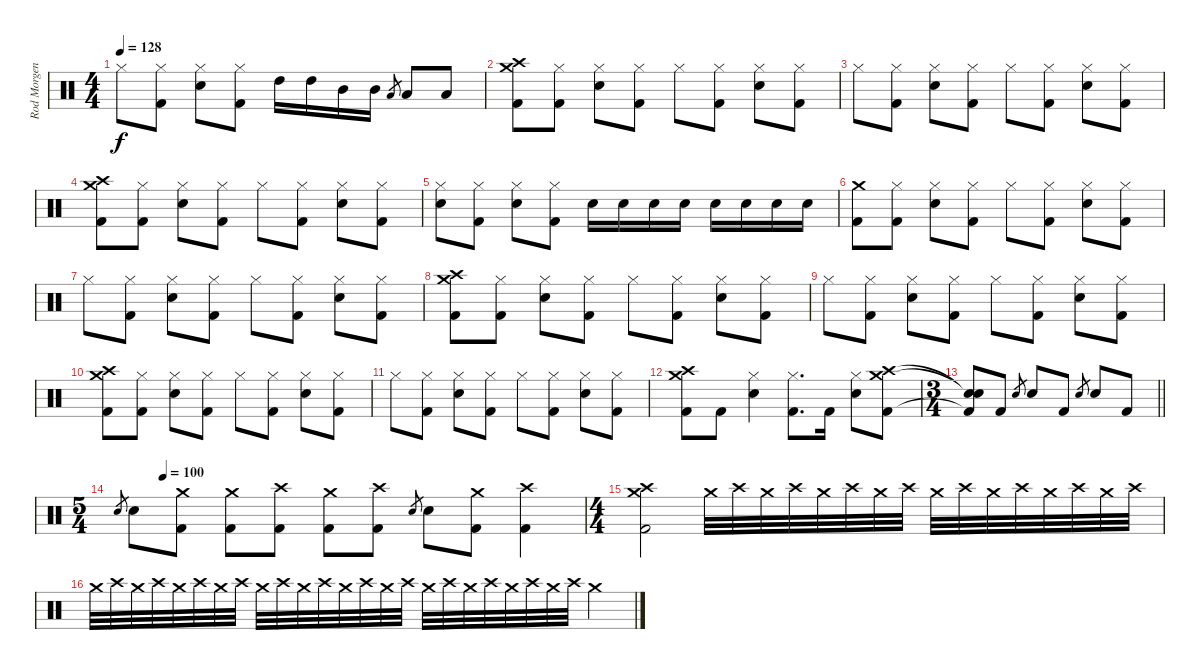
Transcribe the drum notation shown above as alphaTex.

\track ("Rod Morgenstein" "Rod Morgen") {instrument percussion}
\staff {score}
\articulation defaults
\ts (4 4)
\tempo 128
\clef neutral
\ks c "Hi-Hat (closed)".8{dy f}
("Hi-Hat (closed)" "Kick (hit) 2").8 ("Hi-Hat (closed)" "Snare (hit) 2").8 ("Hi-Hat (closed)" "Kick (hit) 2").8 "High Tom (hit)".16 "High Tom (hit)".16 "Mid Tom (hit)".16 "Mid Tom (hit)".16 "Low Tom (hit)".8{gr} "Low Tom (hit)".8 "Low Floor Tom (hit)".8 |
("Crash medium (hit)" "Crash high (hit)" "Kick (hit) 2").8 ("Hi-Hat (closed)" "Kick (hit) 2").8 ("Hi-Hat (closed)" "Snare (hit) 2").8 ("Hi-Hat (closed)" "Kick (hit) 2").8 "Hi-Hat (closed)".8 ("Hi-Hat (closed)" "Kick (hit) 2").8 ("Hi-Hat (closed)" "Snare (hit) 2").8 ("Hi-Hat (closed)" "Kick (hit) 2").8 |
"Hi-Hat (closed)".8 ("Hi-Hat (closed)" "Kick (hit) 2").8 ("Hi-Hat (closed)" "Snare (hit) 2").8 ("Hi-Hat (closed)" "Kick (hit) 2").8 "Hi-Hat (closed)".8 ("Hi-Hat (closed)" "Kick (hit) 2").8 ("Hi-Hat (closed)" "Snare (hit) 2").8 ("Hi-Hat (closed)" "Kick (hit) 2").8 |
("Crash medium (hit)" "Crash high (hit)" "Kick (hit) 2").8 ("Hi-Hat (closed)" "Kick (hit) 2").8 ("Hi-Hat (closed)" "Snare (hit) 2").8 ("Hi-Hat (closed)" "Kick (hit) 2").8 "Hi-Hat (closed)".8 ("Hi-Hat (closed)" "Kick (hit) 2").8 ("Hi-Hat (closed)" "Snare (hit) 2").8 ("Hi-Hat (closed)" "Kick (hit) 2").8 |
("Hi-Hat (closed)" "Snare (hit) 2").8 ("Hi-Hat (closed)" "Kick (hit) 2").8 ("Hi-Hat (closed)" "Snare (hit) 2").8 ("Hi-Hat (closed)" "Kick (hit) 2").8 "Snare (hit) 2".16 "Snare (hit) 2".16 "Snare (hit) 2".16 "Snare (hit) 2".16 "Snare (hit) 2".16 "Snare (hit) 2".16 "Snare (hit) 2".16 "Snare (hit) 2".16 |
("Crash medium (hit)" "Kick (hit) 2").8 ("Hi-Hat (closed)" "Kick (hit) 2").8 ("Hi-Hat (closed)" "Snare (hit) 2").8 ("Hi-Hat (closed)" "Kick (hit) 2").8 "Hi-Hat (closed)".8 ("Hi-Hat (closed)" "Kick (hit) 2").8 ("Hi-Hat (closed)" "Snare (hit) 2").8 ("Hi-Hat (closed)" "Kick (hit) 2").8 |
"Hi-Hat (closed)".8 ("Hi-Hat (closed)" "Kick (hit) 2").8 ("Hi-Hat (closed)" "Snare (hit) 2").8 ("Hi-Hat (closed)" "Kick (hit) 2").8 "Hi-Hat (closed)".8 ("Hi-Hat (closed)" "Kick (hit) 2").8 ("Hi-Hat (closed)" "Snare (hit) 2").8 ("Hi-Hat (closed)" "Kick (hit) 2").8 |
("Crash medium (hit)" "Crash high (hit)" "Kick (hit) 2").8 ("Hi-Hat (closed)" "Kick (hit) 2").8 ("Hi-Hat (closed)" "Snare (hit) 2").8 ("Hi-Hat (closed)" "Kick (hit) 2").8 "Hi-Hat (closed)".8 ("Hi-Hat (closed)" "Kick (hit) 2").8 ("Hi-Hat (closed)" "Snare (hit) 2").8 ("Hi-Hat (closed)" "Kick (hit) 2").8 |
"Hi-Hat (closed)".8 ("Hi-Hat (closed)" "Kick (hit) 2").8 ("Hi-Hat (closed)" "Snare (hit) 2").8 ("Hi-Hat (closed)" "Kick (hit) 2").8 "Hi-Hat (closed)".8 ("Hi-Hat (closed)" "Kick (hit) 2").8 ("Hi-Hat (closed)" "Snare (hit) 2").8 ("Hi-Hat (closed)" "Kick (hit) 2").8 |
("Crash medium (hit)" "Crash high (hit)" "Kick (hit) 2").8 ("Hi-Hat (closed)" "Kick (hit) 2").8 ("Hi-Hat (closed)" "Snare (hit) 2").8 ("Hi-Hat (closed)" "Kick (hit) 2").8 "Hi-Hat (closed)".8 ("Hi-Hat (closed)" "Kick (hit) 2").8 ("Hi-Hat (closed)" "Snare (hit) 2").8 ("Hi-Hat (closed)" "Kick (hit) 2").8 |
"Hi-Hat (closed)".8 ("Hi-Hat (closed)" "Kick (hit) 2").8 ("Hi-Hat (closed)" "Snare (hit) 2").8 ("Hi-Hat (closed)" "Kick (hit) 2").8 "Hi-Hat (closed)".8 ("Hi-Hat (closed)" "Kick (hit) 2").8 ("Hi-Hat (closed)" "Snare (hit) 2").8 ("Hi-Hat (closed)" "Kick (hit) 2").8 |
("Crash medium (hit)" "Crash high (hit)" "Kick (hit) 2").8 "Kick (hit) 2".8 ("Hi-Hat (closed)" "Snare (hit) 2").4 ("Hi-Hat (closed)" "Kick (hit) 2").8{d} "Kick (hit) 2".16 ("Hi-Hat (closed)" "Snare (hit) 2").8 ("Crash medium (hit)" "Crash high (hit)" "Kick (hit) 2").8 |
\ts (3 4)
\barLineRight lightlight
("Snare (hit)"{t} "Snare (hit)"{t} "Kick (hit) 2"{t}).8 "Kick (hit) 2".8 "Snare (hit) 2".8{gr} "Snare (hit) 2".8 "Kick (hit) 2".8 "Snare (hit) 2".8{gr} "Snare (hit) 2".8 "Kick (hit) 2".8 |
\ts (5 4)
\tempo (100 0.1)
"Snare (hit) 2".8{gr} "Snare (hit) 2".8 ("Crash medium (hit)" "Kick (hit) 2").8 ("Crash medium (hit)" "Kick (hit) 2").8 ("Crash high (hit)" "Kick (hit) 2").8 ("Crash medium (hit)" "Kick (hit) 2").8 ("Crash high (hit)" "Kick (hit) 2").8 "Snare (hit) 2".8{gr} "Snare (hit) 2".8 ("Crash medium (hit)" "Kick (hit) 2").8 ("Crash high (hit)" "Kick (hit) 2").4 |
\ts (4 4)
("Crash medium (hit)" "Crash high (hit)" "Kick (hit) 2").2 "Crash medium (hit)".32 "Crash high (hit)".32 "Crash medium (hit)".32 "Crash high (hit)".32 "Crash medium (hit)".32 "Crash high (hit)".32 "Crash medium (hit)".32 "Crash high (hit)".32 "Crash medium (hit)".32 "Crash high (hit)".32 "Crash medium (hit)".32 "Crash high (hit)".32 "Crash medium (hit)".32 "Crash high (hit)".32 "Crash medium (hit)".32 "Crash high (hit)".32 |
"Crash medium (hit)".32 "Crash high (hit)".32 "Crash medium (hit)".32 "Crash high (hit)".32 "Crash medium (hit)".32 "Crash high (hit)".32 "Crash medium (hit)".32 "Crash high (hit)".32 "Crash medium (hit)".32 "Crash high (hit)".32 "Crash medium (hit)".32 "Crash high (hit)".32 "Crash medium (hit)".32 "Crash high (hit)".32 "Crash medium (hit)".32 "Crash high (hit)".32 "Crash medium (hit)".32 "Crash high (hit)".32 "Crash medium (hit)".32 "Crash high (hit)".32 "Crash medium (hit)".32 "Crash high (hit)".32 "Crash medium (hit)".32 "Crash high (hit)".32 "Crash medium (hit)".4
